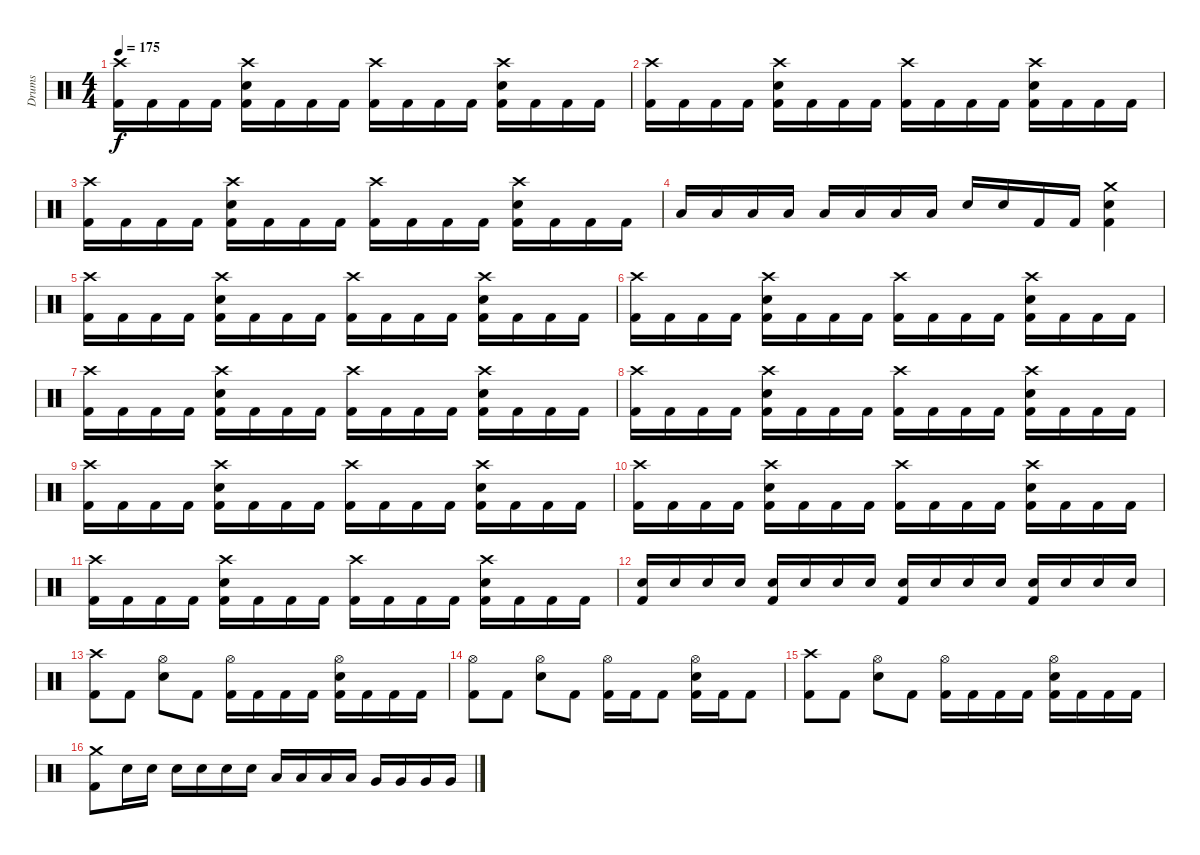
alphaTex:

\track ("Drums" "Drums") {instrument percussion}
\staff {score}
\articulation defaults
\ts (4 4)
\tempo 175
\clef neutral
\ks c
("Crash high (hit)" "Kick (hit) 2").16{dy f} "Kick (hit) 2".16 "Kick (hit) 2".16 "Kick (hit) 2".16 ("Crash high (hit)" "Snare (hit) 2" "Kick (hit) 2").16 "Kick (hit) 2".16 "Kick (hit) 2".16 "Kick (hit) 2".16 ("Crash high (hit)" "Kick (hit) 2").16 "Kick (hit) 2".16 "Kick (hit) 2".16 "Kick (hit) 2".16 ("Crash high (hit)" "Snare (hit) 2" "Kick (hit) 2").16 "Kick (hit) 2".16 "Kick (hit) 2".16 "Kick (hit) 2".16 |
("Crash high (hit)" "Kick (hit) 2").16 "Kick (hit) 2".16 "Kick (hit) 2".16 "Kick (hit) 2".16 ("Crash high (hit)" "Snare (hit) 2" "Kick (hit) 2").16 "Kick (hit) 2".16 "Kick (hit) 2".16 "Kick (hit) 2".16 ("Crash high (hit)" "Kick (hit) 2").16 "Kick (hit) 2".16 "Kick (hit) 2".16 "Kick (hit) 2".16 ("Crash high (hit)" "Snare (hit) 2" "Kick (hit) 2").16 "Kick (hit) 2".16 "Kick (hit) 2".16 "Kick (hit) 2".16 |
("Crash high (hit)" "Kick (hit) 2").16 "Kick (hit) 2".16 "Kick (hit) 2".16 "Kick (hit) 2".16 ("Crash high (hit)" "Snare (hit) 2" "Kick (hit) 2").16 "Kick (hit) 2".16 "Kick (hit) 2".16 "Kick (hit) 2".16 ("Crash high (hit)" "Kick (hit) 2").16 "Kick (hit) 2".16 "Kick (hit) 2".16 "Kick (hit) 2".16 ("Crash high (hit)" "Snare (hit) 2" "Kick (hit) 2").16 "Kick (hit) 2".16 "Kick (hit) 2".16 "Kick (hit) 2".16 |
"Low Tom (hit)".16 "Low Tom (hit)".16 "Low Tom (hit)".16 "Low Tom (hit)".16 "Low Tom (hit)".16 "Low Tom (hit)".16 "Low Tom (hit)".16 "Low Tom (hit)".16 "Snare (hit) 2".16 "Snare (hit) 2".16 "Kick (hit) 2".16 "Kick (hit) 2".16 ("Crash medium (hit)" "Kick (hit) 2" "Snare (hit) 2").4 |
("Crash high (hit)" "Kick (hit) 2").16 "Kick (hit) 2".16 "Kick (hit) 2".16 "Kick (hit) 2".16 ("Crash high (hit)" "Snare (hit) 2" "Kick (hit) 2").16 "Kick (hit) 2".16 "Kick (hit) 2".16 "Kick (hit) 2".16 ("Crash high (hit)" "Kick (hit) 2").16 "Kick (hit) 2".16 "Kick (hit) 2".16 "Kick (hit) 2".16 ("Crash high (hit)" "Snare (hit) 2" "Kick (hit) 2").16 "Kick (hit) 2".16 "Kick (hit) 2".16 "Kick (hit) 2".16 |
("Crash high (hit)" "Kick (hit) 2").16 "Kick (hit) 2".16 "Kick (hit) 2".16 "Kick (hit) 2".16 ("Crash high (hit)" "Snare (hit) 2" "Kick (hit) 2").16 "Kick (hit) 2".16 "Kick (hit) 2".16 "Kick (hit) 2".16 ("Crash high (hit)" "Kick (hit) 2").16 "Kick (hit) 2".16 "Kick (hit) 2".16 "Kick (hit) 2".16 ("Crash high (hit)" "Snare (hit) 2" "Kick (hit) 2").16 "Kick (hit) 2".16 "Kick (hit) 2".16 "Kick (hit) 2".16 |
("Crash high (hit)" "Kick (hit) 2").16 "Kick (hit) 2".16 "Kick (hit) 2".16 "Kick (hit) 2".16 ("Crash high (hit)" "Snare (hit) 2" "Kick (hit) 2").16 "Kick (hit) 2".16 "Kick (hit) 2".16 "Kick (hit) 2".16 ("Crash high (hit)" "Kick (hit) 2").16 "Kick (hit) 2".16 "Kick (hit) 2".16 "Kick (hit) 2".16 ("Crash high (hit)" "Snare (hit) 2" "Kick (hit) 2").16 "Kick (hit) 2".16 "Kick (hit) 2".16 "Kick (hit) 2".16 |
("Crash high (hit)" "Kick (hit) 2").16 "Kick (hit) 2".16 "Kick (hit) 2".16 "Kick (hit) 2".16 ("Crash high (hit)" "Snare (hit) 2" "Kick (hit) 2").16 "Kick (hit) 2".16 "Kick (hit) 2".16 "Kick (hit) 2".16 ("Crash high (hit)" "Kick (hit) 2").16 "Kick (hit) 2".16 "Kick (hit) 2".16 "Kick (hit) 2".16 ("Crash high (hit)" "Snare (hit) 2" "Kick (hit) 2").16 "Kick (hit) 2".16 "Kick (hit) 2".16 "Kick (hit) 2".16 |
("Crash high (hit)" "Kick (hit) 2").16 "Kick (hit) 2".16 "Kick (hit) 2".16 "Kick (hit) 2".16 ("Crash high (hit)" "Snare (hit) 2" "Kick (hit) 2").16 "Kick (hit) 2".16 "Kick (hit) 2".16 "Kick (hit) 2".16 ("Crash high (hit)" "Kick (hit) 2").16 "Kick (hit) 2".16 "Kick (hit) 2".16 "Kick (hit) 2".16 ("Crash high (hit)" "Snare (hit) 2" "Kick (hit) 2").16 "Kick (hit) 2".16 "Kick (hit) 2".16 "Kick (hit) 2".16 |
("Crash high (hit)" "Kick (hit) 2").16 "Kick (hit) 2".16 "Kick (hit) 2".16 "Kick (hit) 2".16 ("Crash high (hit)" "Snare (hit) 2" "Kick (hit) 2").16 "Kick (hit) 2".16 "Kick (hit) 2".16 "Kick (hit) 2".16 ("Crash high (hit)" "Kick (hit) 2").16 "Kick (hit) 2".16 "Kick (hit) 2".16 "Kick (hit) 2".16 ("Crash high (hit)" "Snare (hit) 2" "Kick (hit) 2").16 "Kick (hit) 2".16 "Kick (hit) 2".16 "Kick (hit) 2".16 |
("Crash high (hit)" "Kick (hit) 2").16 "Kick (hit) 2".16 "Kick (hit) 2".16 "Kick (hit) 2".16 ("Crash high (hit)" "Snare (hit) 2" "Kick (hit) 2").16 "Kick (hit) 2".16 "Kick (hit) 2".16 "Kick (hit) 2".16 ("Crash high (hit)" "Kick (hit) 2").16 "Kick (hit) 2".16 "Kick (hit) 2".16 "Kick (hit) 2".16 ("Crash high (hit)" "Snare (hit) 2" "Kick (hit) 2").16 "Kick (hit) 2".16 "Kick (hit) 2".16 "Kick (hit) 2".16 |
("Kick (hit) 2" "Snare (hit) 2").16 "Snare (hit) 2".16 "Snare (hit) 2".16 "Snare (hit) 2".16 ("Kick (hit) 2" "Snare (hit) 2").16 "Snare (hit) 2".16 "Snare (hit) 2".16 "Snare (hit) 2".16 ("Kick (hit) 2" "Snare (hit) 2").16 "Snare (hit) 2".16 "Snare (hit) 2".16 "Snare (hit) 2".16 ("Kick (hit) 2" "Snare (hit) 2").16 "Snare (hit) 2".16 "Snare (hit) 2".16 "Snare (hit) 2".16 |
("Crash high (hit)" "Kick (hit) 2").8 "Kick (hit) 2".8 ("Hi-Hat (open)" "Snare (hit) 2").8 "Kick (hit) 2".8 ("Hi-Hat (open)" "Kick (hit) 2").16 "Kick (hit) 2".16 "Kick (hit) 2".16 "Kick (hit) 2".16 ("Hi-Hat (open)" "Snare (hit) 2" "Kick (hit) 2").16 "Kick (hit) 2".16 "Kick (hit) 2".16 "Kick (hit) 2".16 |
("Hi-Hat (open)" "Kick (hit) 2").8 "Kick (hit) 2".8 ("Hi-Hat (open)" "Snare (hit) 2").8 "Kick (hit) 2".8 ("Hi-Hat (open)" "Kick (hit) 2").16 "Kick (hit) 2".16 "Kick (hit) 2".8 ("Hi-Hat (open)" "Snare (hit) 2" "Kick (hit) 2").16 "Kick (hit) 2".16 "Kick (hit) 2".8 |
("Crash high (hit)" "Kick (hit) 2").8 "Kick (hit) 2".8 ("Hi-Hat (open)" "Snare (hit) 2").8 "Kick (hit) 2".8 ("Hi-Hat (open)" "Kick (hit) 2").16 "Kick (hit) 2".16 "Kick (hit) 2".16 "Kick (hit) 2".16 ("Hi-Hat (open)" "Snare (hit) 2" "Kick (hit) 2").16 "Kick (hit) 2".16 "Kick (hit) 2".16 "Kick (hit) 2".16 |
("Crash medium (hit)" "Kick (hit) 2").8 "Snare (hit) 2".16 "Snare (hit) 2".16 "Snare (hit) 2".16 "Snare (hit) 2".16 "Snare (hit) 2".16 "Snare (hit) 2".16 "Low Tom (hit)".16 "Low Tom (hit)".16 "Low Tom (hit)".16 "Low Tom (hit)".16 "Very Low Tom (hit)".16 "Very Low Tom (hit)".16 "Very Low Tom (hit)".16 "Very Low Tom (hit)".16
